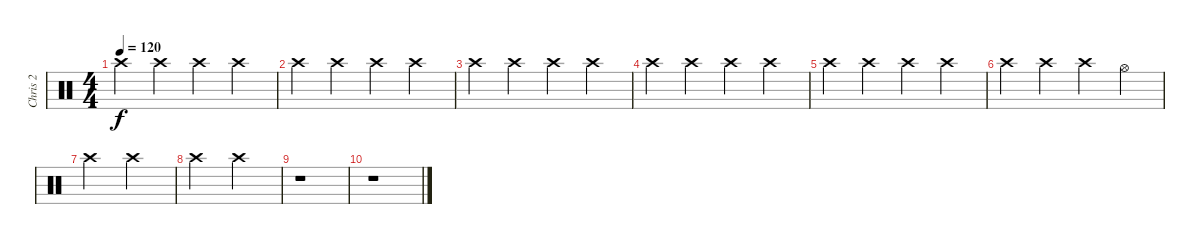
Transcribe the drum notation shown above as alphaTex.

\track ("Chris 2" "Chris 2") {instrument percussion}
\staff {score}
\articulation defaults
\ts (4 4)
\tempo 120
\clef neutral
\ks c "Crash high (hit)".4{dy f} "Crash high (hit)".4 "Crash high (hit)".4 "Crash high (hit)".4
|
"Crash high (hit)".4 "Crash high (hit)".4 "Crash high (hit)".4 "Crash high (hit)".4 |
"Crash high (hit)".4 "Crash high (hit)".4 "Crash high (hit)".4 "Crash high (hit)".4 |
"Crash high (hit)".4 "Crash high (hit)".4 "Crash high (hit)".4 "Crash high (hit)".4 |
"Crash high (hit)".4 "Crash high (hit)".4 "Crash high (hit)".4 "Crash high (hit)".4 |
"Crash high (hit)".4 "Crash high (hit)".4 "Crash high (hit)".4 "Hi-Hat (open)".4 |
"Crash high (hit)".2 "Crash high (hit)".2 |
"Crash high (hit)".2 "Crash high (hit)".2 |
r.1 |
r.1
